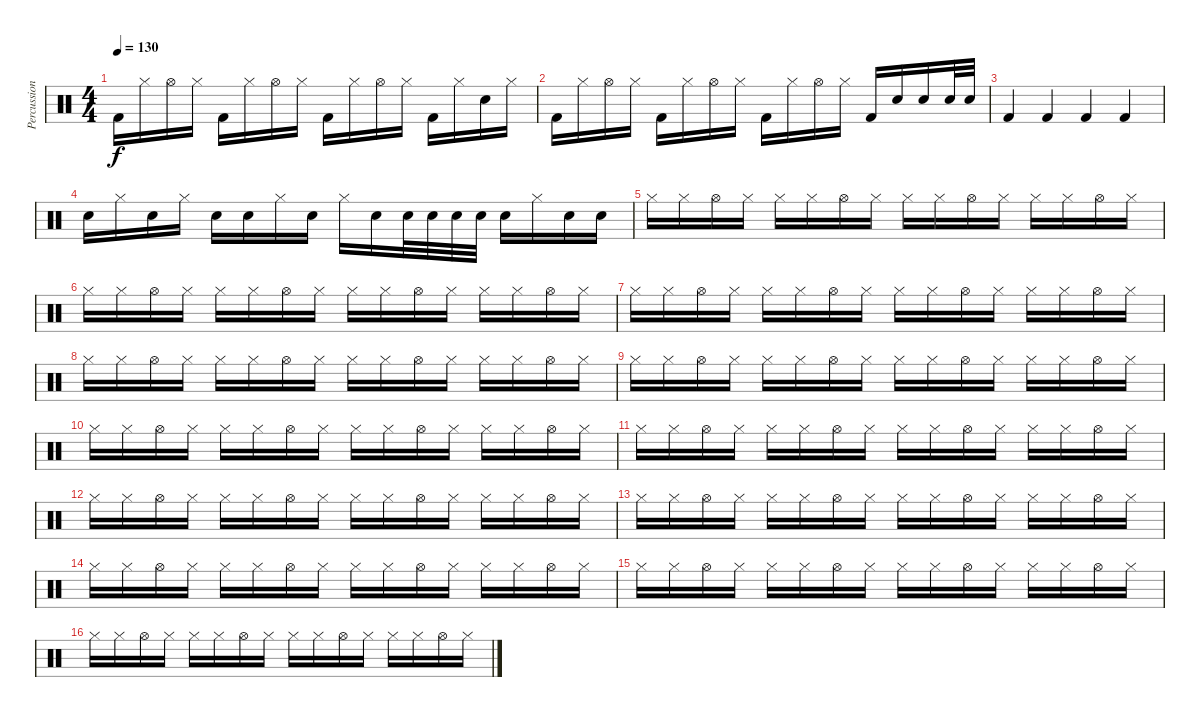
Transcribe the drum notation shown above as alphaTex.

\track ("Percussion" "Percussion") {instrument percussion}
\staff {score}
\articulation defaults
\ts (4 4)
\tempo 130
\clef neutral
\ks c "Kick (hit) 2".16{dy f} "Hi-Hat (closed)".16 "Hi-Hat (open)".16 "Hi-Hat (closed)".16 "Kick (hit) 2".16 "Hi-Hat (closed)".16 "Hi-Hat (open)".16 "Hi-Hat (closed)".16 "Kick (hit) 2".16 "Hi-Hat (closed)".16 "Hi-Hat (open)".16 "Hi-Hat (closed)".16 "Kick (hit) 2".16 "Hi-Hat (closed)".16 "Snare (hit) 2".16 "Hi-Hat (closed)".16
|
"Kick (hit) 2".16 "Hi-Hat (closed)".16 "Hi-Hat (open)".16 "Hi-Hat (closed)".16 "Kick (hit) 2".16 "Hi-Hat (closed)".16 "Hi-Hat (open)".16 "Hi-Hat (closed)".16 "Kick (hit) 2".16 "Hi-Hat (closed)".16 "Hi-Hat (open)".16 "Hi-Hat (closed)".16 "Kick (hit) 2".16 "Snare (hit) 2".16 "Snare (hit) 2".16 "Snare (hit) 2".32 "Snare (hit) 2".32 |
"Kick (hit) 2".4 "Kick (hit) 2".4 "Kick (hit) 2".4 "Kick (hit) 2".4 |
"Snare (hit) 2".16 "Hi-Hat (closed)".16 "Snare (hit) 2".16 "Hi-Hat (closed)".16 "Snare (hit) 2".16 "Snare (hit) 2".16 "Hi-Hat (closed)".16 "Snare (hit) 2".16 "Hi-Hat (closed)".16 "Snare (hit) 2".16 "Snare (hit) 2".32 "Snare (hit) 2".32 "Snare (hit) 2".32 "Snare (hit) 2".32 "Snare (hit) 2".16 "Hi-Hat (closed)".16 "Snare (hit) 2".16 "Snare (hit) 2".16 |
"Hi-Hat (closed)".16 "Hi-Hat (closed)".16 "Hi-Hat (open)".16 "Hi-Hat (closed)".16 "Hi-Hat (closed)".16 "Hi-Hat (closed)".16 "Hi-Hat (open)".16 "Hi-Hat (closed)".16 "Hi-Hat (closed)".16 "Hi-Hat (closed)".16 "Hi-Hat (open)".16 "Hi-Hat (closed)".16 "Hi-Hat (closed)".16 "Hi-Hat (closed)".16 "Hi-Hat (open)".16 "Hi-Hat (closed)".16 |
"Hi-Hat (closed)".16 "Hi-Hat (closed)".16 "Hi-Hat (open)".16 "Hi-Hat (closed)".16 "Hi-Hat (closed)".16 "Hi-Hat (closed)".16 "Hi-Hat (open)".16 "Hi-Hat (closed)".16 "Hi-Hat (closed)".16 "Hi-Hat (closed)".16 "Hi-Hat (open)".16 "Hi-Hat (closed)".16 "Hi-Hat (closed)".16 "Hi-Hat (closed)".16 "Hi-Hat (open)".16 "Hi-Hat (closed)".16 |
"Hi-Hat (closed)".16 "Hi-Hat (closed)".16 "Hi-Hat (open)".16 "Hi-Hat (closed)".16 "Hi-Hat (closed)".16 "Hi-Hat (closed)".16 "Hi-Hat (open)".16 "Hi-Hat (closed)".16 "Hi-Hat (closed)".16 "Hi-Hat (closed)".16 "Hi-Hat (open)".16 "Hi-Hat (closed)".16 "Hi-Hat (closed)".16 "Hi-Hat (closed)".16 "Hi-Hat (open)".16 "Hi-Hat (closed)".16 |
"Hi-Hat (closed)".16 "Hi-Hat (closed)".16 "Hi-Hat (open)".16 "Hi-Hat (closed)".16 "Hi-Hat (closed)".16 "Hi-Hat (closed)".16 "Hi-Hat (open)".16 "Hi-Hat (closed)".16 "Hi-Hat (closed)".16 "Hi-Hat (closed)".16 "Hi-Hat (open)".16 "Hi-Hat (closed)".16 "Hi-Hat (closed)".16 "Hi-Hat (closed)".16 "Hi-Hat (open)".16 "Hi-Hat (closed)".16 |
"Hi-Hat (closed)".16 "Hi-Hat (closed)".16 "Hi-Hat (open)".16 "Hi-Hat (closed)".16 "Hi-Hat (closed)".16 "Hi-Hat (closed)".16 "Hi-Hat (open)".16 "Hi-Hat (closed)".16 "Hi-Hat (closed)".16 "Hi-Hat (closed)".16 "Hi-Hat (open)".16 "Hi-Hat (closed)".16 "Hi-Hat (closed)".16 "Hi-Hat (closed)".16 "Hi-Hat (open)".16 "Hi-Hat (closed)".16 |
"Hi-Hat (closed)".16 "Hi-Hat (closed)".16 "Hi-Hat (open)".16 "Hi-Hat (closed)".16 "Hi-Hat (closed)".16 "Hi-Hat (closed)".16 "Hi-Hat (open)".16 "Hi-Hat (closed)".16 "Hi-Hat (closed)".16 "Hi-Hat (closed)".16 "Hi-Hat (open)".16 "Hi-Hat (closed)".16 "Hi-Hat (closed)".16 "Hi-Hat (closed)".16 "Hi-Hat (open)".16 "Hi-Hat (closed)".16 |
"Hi-Hat (closed)".16 "Hi-Hat (closed)".16 "Hi-Hat (open)".16 "Hi-Hat (closed)".16 "Hi-Hat (closed)".16 "Hi-Hat (closed)".16 "Hi-Hat (open)".16 "Hi-Hat (closed)".16 "Hi-Hat (closed)".16 "Hi-Hat (closed)".16 "Hi-Hat (open)".16 "Hi-Hat (closed)".16 "Hi-Hat (closed)".16 "Hi-Hat (closed)".16 "Hi-Hat (open)".16 "Hi-Hat (closed)".16 |
"Hi-Hat (closed)".16 "Hi-Hat (closed)".16 "Hi-Hat (open)".16 "Hi-Hat (closed)".16 "Hi-Hat (closed)".16 "Hi-Hat (closed)".16 "Hi-Hat (open)".16 "Hi-Hat (closed)".16 "Hi-Hat (closed)".16 "Hi-Hat (closed)".16 "Hi-Hat (open)".16 "Hi-Hat (closed)".16 "Hi-Hat (closed)".16 "Hi-Hat (closed)".16 "Hi-Hat (open)".16 "Hi-Hat (closed)".16 |
"Hi-Hat (closed)".16 "Hi-Hat (closed)".16 "Hi-Hat (open)".16 "Hi-Hat (closed)".16 "Hi-Hat (closed)".16 "Hi-Hat (closed)".16 "Hi-Hat (open)".16 "Hi-Hat (closed)".16 "Hi-Hat (closed)".16 "Hi-Hat (closed)".16 "Hi-Hat (open)".16 "Hi-Hat (closed)".16 "Hi-Hat (closed)".16 "Hi-Hat (closed)".16 "Hi-Hat (open)".16 "Hi-Hat (closed)".16 |
"Hi-Hat (closed)".16 "Hi-Hat (closed)".16 "Hi-Hat (open)".16 "Hi-Hat (closed)".16 "Hi-Hat (closed)".16 "Hi-Hat (closed)".16 "Hi-Hat (open)".16 "Hi-Hat (closed)".16 "Hi-Hat (closed)".16 "Hi-Hat (closed)".16 "Hi-Hat (open)".16 "Hi-Hat (closed)".16 "Hi-Hat (closed)".16 "Hi-Hat (closed)".16 "Hi-Hat (open)".16 "Hi-Hat (closed)".16 |
"Hi-Hat (closed)".16 "Hi-Hat (closed)".16 "Hi-Hat (open)".16 "Hi-Hat (closed)".16 "Hi-Hat (closed)".16 "Hi-Hat (closed)".16 "Hi-Hat (open)".16 "Hi-Hat (closed)".16 "Hi-Hat (closed)".16 "Hi-Hat (closed)".16 "Hi-Hat (open)".16 "Hi-Hat (closed)".16 "Hi-Hat (closed)".16 "Hi-Hat (closed)".16 "Hi-Hat (open)".16 "Hi-Hat (closed)".16 |
"Hi-Hat (closed)".16 "Hi-Hat (closed)".16 "Hi-Hat (open)".16 "Hi-Hat (closed)".16 "Hi-Hat (closed)".16 "Hi-Hat (closed)".16 "Hi-Hat (open)".16 "Hi-Hat (closed)".16 "Hi-Hat (closed)".16 "Hi-Hat (closed)".16 "Hi-Hat (open)".16 "Hi-Hat (closed)".16 "Hi-Hat (closed)".16 "Hi-Hat (closed)".16 "Hi-Hat (open)".16 "Hi-Hat (closed)".16
